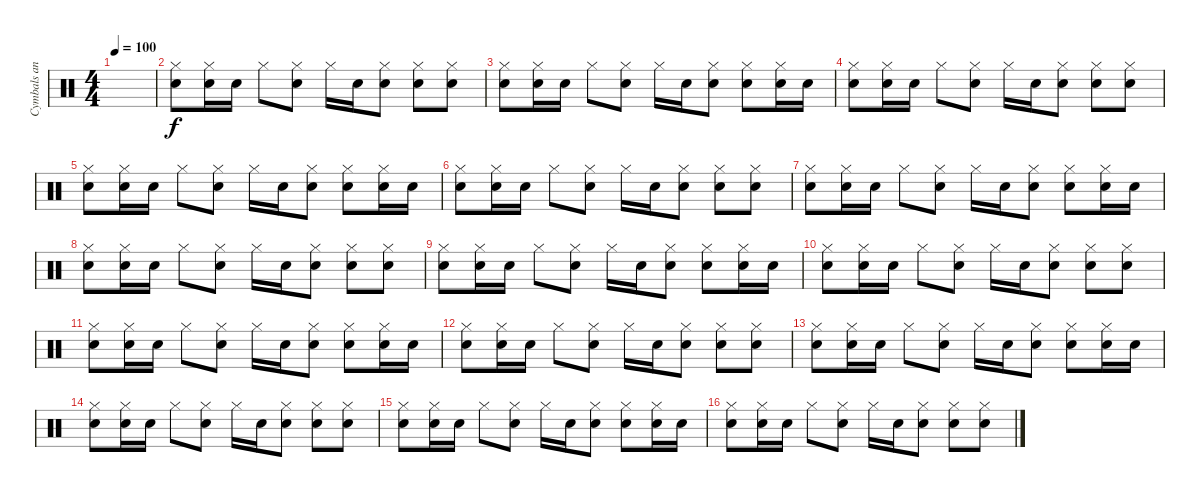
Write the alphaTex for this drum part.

\track ("Cymbals and Snare" "Cymbals an") {instrument percussion}
\staff {score}
\articulation defaults
\ts (4 4)
\tempo 100
\clef neutral
\ks c
|
("Hand Clap (hit)" "Hi-Hat (closed)").8 ("Hand Clap (hit)" "Hi-Hat (closed)").16 "Hand Clap (hit)".16 "Hi-Hat (closed)".8 ("Hand Clap (hit)" "Hi-Hat (closed)").8 "Hi-Hat (closed)".16 "Hand Clap (hit)".16 ("Hand Clap (hit)" "Hi-Hat (closed)").8 ("Hand Clap (hit)" "Hi-Hat (closed)").8 ("Hand Clap (hit)" "Hi-Hat (closed)").8 |
("Hand Clap (hit)" "Hi-Hat (closed)").8 ("Hand Clap (hit)" "Hi-Hat (closed)").16 "Hand Clap (hit)".16 "Hi-Hat (closed)".8 ("Hand Clap (hit)" "Hi-Hat (closed)").8 "Hi-Hat (closed)".16 "Hand Clap (hit)".16 ("Hand Clap (hit)" "Hi-Hat (closed)").8 ("Hand Clap (hit)" "Hi-Hat (closed)").8 ("Hand Clap (hit)" "Hi-Hat (closed)").16 "Hand Clap (hit)".16 |
("Hand Clap (hit)" "Hi-Hat (closed)").8 ("Hand Clap (hit)" "Hi-Hat (closed)").16 "Hand Clap (hit)".16 "Hi-Hat (closed)".8 ("Hand Clap (hit)" "Hi-Hat (closed)").8 "Hi-Hat (closed)".16 "Hand Clap (hit)".16 ("Hand Clap (hit)" "Hi-Hat (closed)").8 ("Hand Clap (hit)" "Hi-Hat (closed)").8 ("Hand Clap (hit)" "Hi-Hat (closed)").8 |
("Hand Clap (hit)" "Hi-Hat (closed)").8 ("Hand Clap (hit)" "Hi-Hat (closed)").16 "Hand Clap (hit)".16 "Hi-Hat (closed)".8 ("Hand Clap (hit)" "Hi-Hat (closed)").8 "Hi-Hat (closed)".16 "Hand Clap (hit)".16 ("Hand Clap (hit)" "Hi-Hat (closed)").8 ("Hand Clap (hit)" "Hi-Hat (closed)").8 ("Hand Clap (hit)" "Hi-Hat (closed)").16 "Hand Clap (hit)".16 |
("Hand Clap (hit)" "Hi-Hat (closed)").8 ("Hand Clap (hit)" "Hi-Hat (closed)").16 "Hand Clap (hit)".16 "Hi-Hat (closed)".8 ("Hand Clap (hit)" "Hi-Hat (closed)").8 "Hi-Hat (closed)".16 "Hand Clap (hit)".16 ("Hand Clap (hit)" "Hi-Hat (closed)").8 ("Hand Clap (hit)" "Hi-Hat (closed)").8 ("Hand Clap (hit)" "Hi-Hat (closed)").8 |
("Hand Clap (hit)" "Hi-Hat (closed)").8 ("Hand Clap (hit)" "Hi-Hat (closed)").16 "Hand Clap (hit)".16 "Hi-Hat (closed)".8 ("Hand Clap (hit)" "Hi-Hat (closed)").8 "Hi-Hat (closed)".16 "Hand Clap (hit)".16 ("Hand Clap (hit)" "Hi-Hat (closed)").8 ("Hand Clap (hit)" "Hi-Hat (closed)").8 ("Hand Clap (hit)" "Hi-Hat (closed)").16 "Hand Clap (hit)".16 |
("Hand Clap (hit)" "Hi-Hat (closed)").8 ("Hand Clap (hit)" "Hi-Hat (closed)").16 "Hand Clap (hit)".16 "Hi-Hat (closed)".8 ("Hand Clap (hit)" "Hi-Hat (closed)").8 "Hi-Hat (closed)".16 "Hand Clap (hit)".16 ("Hand Clap (hit)" "Hi-Hat (closed)").8 ("Hand Clap (hit)" "Hi-Hat (closed)").8 ("Hand Clap (hit)" "Hi-Hat (closed)").8 |
("Hand Clap (hit)" "Hi-Hat (closed)").8 ("Hand Clap (hit)" "Hi-Hat (closed)").16 "Hand Clap (hit)".16 "Hi-Hat (closed)".8 ("Hand Clap (hit)" "Hi-Hat (closed)").8 "Hi-Hat (closed)".16 "Hand Clap (hit)".16 ("Hand Clap (hit)" "Hi-Hat (closed)").8 ("Hand Clap (hit)" "Hi-Hat (closed)").8 ("Hand Clap (hit)" "Hi-Hat (closed)").16 "Hand Clap (hit)".16 |
("Hand Clap (hit)" "Hi-Hat (closed)").8 ("Hand Clap (hit)" "Hi-Hat (closed)").16 "Hand Clap (hit)".16 "Hi-Hat (closed)".8 ("Hand Clap (hit)" "Hi-Hat (closed)").8 "Hi-Hat (closed)".16 "Hand Clap (hit)".16 ("Hand Clap (hit)" "Hi-Hat (closed)").8 ("Hand Clap (hit)" "Hi-Hat (closed)").8 ("Hand Clap (hit)" "Hi-Hat (closed)").8 |
("Hand Clap (hit)" "Hi-Hat (closed)").8 ("Hand Clap (hit)" "Hi-Hat (closed)").16 "Hand Clap (hit)".16 "Hi-Hat (closed)".8 ("Hand Clap (hit)" "Hi-Hat (closed)").8 "Hi-Hat (closed)".16 "Hand Clap (hit)".16 ("Hand Clap (hit)" "Hi-Hat (closed)").8 ("Hand Clap (hit)" "Hi-Hat (closed)").8 ("Hand Clap (hit)" "Hi-Hat (closed)").16 "Hand Clap (hit)".16 |
("Hand Clap (hit)" "Hi-Hat (closed)").8 ("Hand Clap (hit)" "Hi-Hat (closed)").16 "Hand Clap (hit)".16 "Hi-Hat (closed)".8 ("Hand Clap (hit)" "Hi-Hat (closed)").8 "Hi-Hat (closed)".16 "Hand Clap (hit)".16 ("Hand Clap (hit)" "Hi-Hat (closed)").8 ("Hand Clap (hit)" "Hi-Hat (closed)").8 ("Hand Clap (hit)" "Hi-Hat (closed)").8 |
("Hand Clap (hit)" "Hi-Hat (closed)").8 ("Hand Clap (hit)" "Hi-Hat (closed)").16 "Hand Clap (hit)".16 "Hi-Hat (closed)".8 ("Hand Clap (hit)" "Hi-Hat (closed)").8 "Hi-Hat (closed)".16 "Hand Clap (hit)".16 ("Hand Clap (hit)" "Hi-Hat (closed)").8 ("Hand Clap (hit)" "Hi-Hat (closed)").8 ("Hand Clap (hit)" "Hi-Hat (closed)").16 "Hand Clap (hit)".16 |
("Hand Clap (hit)" "Hi-Hat (closed)").8 ("Hand Clap (hit)" "Hi-Hat (closed)").16 "Hand Clap (hit)".16 "Hi-Hat (closed)".8 ("Hand Clap (hit)" "Hi-Hat (closed)").8 "Hi-Hat (closed)".16 "Hand Clap (hit)".16 ("Hand Clap (hit)" "Hi-Hat (closed)").8 ("Hand Clap (hit)" "Hi-Hat (closed)").8 ("Hand Clap (hit)" "Hi-Hat (closed)").8 |
("Hand Clap (hit)" "Hi-Hat (closed)").8 ("Hand Clap (hit)" "Hi-Hat (closed)").16 "Hand Clap (hit)".16 "Hi-Hat (closed)".8 ("Hand Clap (hit)" "Hi-Hat (closed)").8 "Hi-Hat (closed)".16 "Hand Clap (hit)".16 ("Hand Clap (hit)" "Hi-Hat (closed)").8 ("Hand Clap (hit)" "Hi-Hat (closed)").8 ("Hand Clap (hit)" "Hi-Hat (closed)").16 "Hand Clap (hit)".16 |
("Hand Clap (hit)" "Hi-Hat (closed)").8 ("Hand Clap (hit)" "Hi-Hat (closed)").16 "Hand Clap (hit)".16 "Hi-Hat (closed)".8 ("Hand Clap (hit)" "Hi-Hat (closed)").8 "Hi-Hat (closed)".16 "Hand Clap (hit)".16 ("Hand Clap (hit)" "Hi-Hat (closed)").8 ("Hand Clap (hit)" "Hi-Hat (closed)").8 ("Hand Clap (hit)" "Hi-Hat (closed)").8
